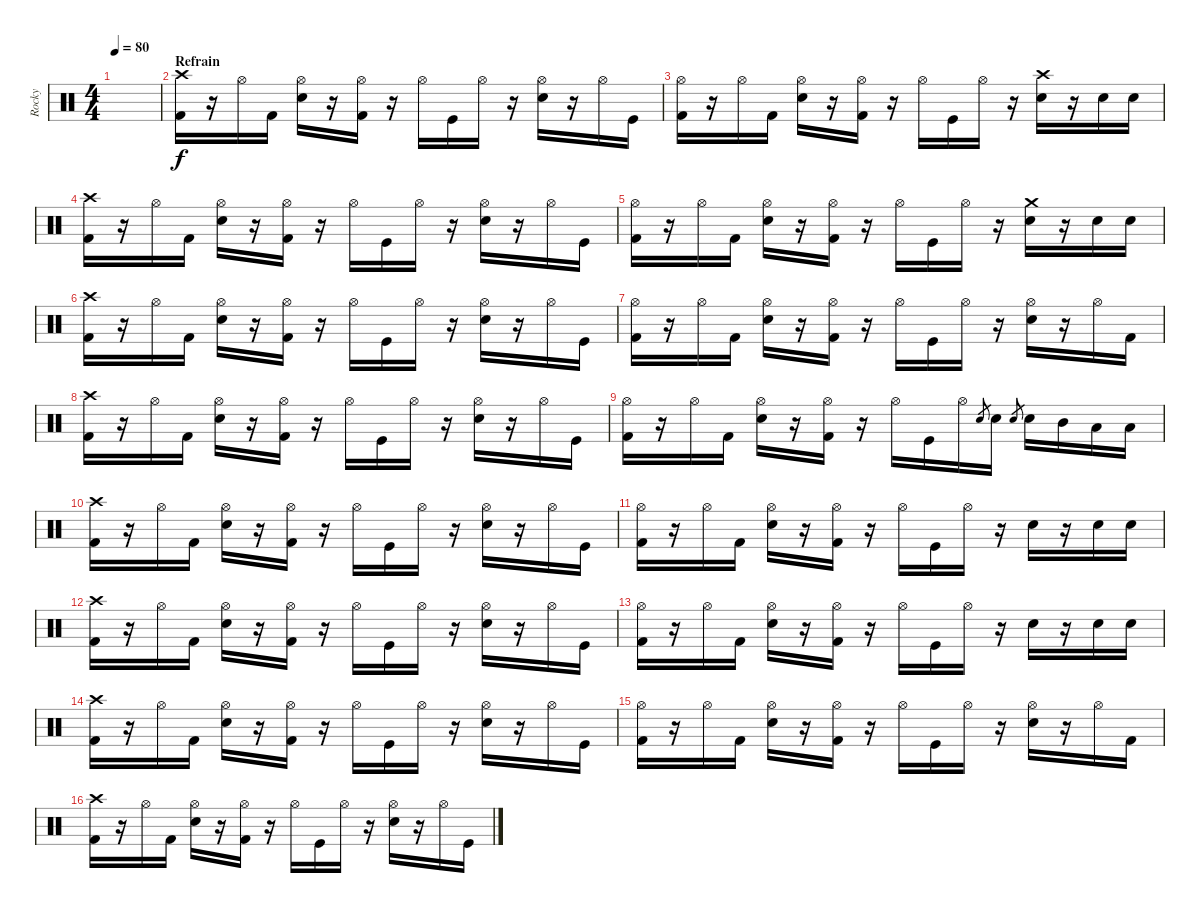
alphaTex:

\track ("Rocky" "Rocky") {instrument percussion}
\staff {score}
\articulation defaults
\ts (4 4)
\tempo 80
\clef neutral
\ks c
|
\section ("" "Refrain")
("Crash high (hit)" "Kick (hit) 2").16 r.16 "Hi-Hat (open)".16 "Kick (hit) 2".16 ("Hi-Hat (open)" "Electric Snare (hit)").16 r.16 ("Hi-Hat (open)" "Kick (hit) 2").16 r.16 "Hi-Hat (open)".16 "Kick (hit)".16 "Hi-Hat (open)".16 r.16 ("Hi-Hat (open)" "Electric Snare (hit)").16 r.16 "Hi-Hat (open)".16 "Kick (hit)".16 |
("Hi-Hat (open)" "Kick (hit) 2").16 r.16 "Hi-Hat (open)".16 "Kick (hit) 2".16 ("Hi-Hat (open)" "Electric Snare (hit)").16 r.16 ("Hi-Hat (open)" "Kick (hit) 2").16 r.16 "Hi-Hat (open)".16 "Kick (hit)".16 "Hi-Hat (open)".16 r.16 ("Crash high (hit)" "Electric Snare (hit)").16 r.16 "Electric Snare (hit)".16 "Electric Snare (hit)".16 |
("Crash high (hit)" "Kick (hit) 2").16 r.16 "Hi-Hat (open)".16 "Kick (hit) 2".16 ("Hi-Hat (open)" "Electric Snare (hit)").16 r.16 ("Hi-Hat (open)" "Kick (hit) 2").16 r.16 "Hi-Hat (open)".16 "Kick (hit)".16 "Hi-Hat (open)".16 r.16 ("Hi-Hat (open)" "Electric Snare (hit)").16 r.16 "Hi-Hat (open)".16 "Kick (hit)".16 |
("Hi-Hat (open)" "Kick (hit) 2").16 r.16 "Hi-Hat (open)".16 "Kick (hit) 2".16 ("Hi-Hat (open)" "Electric Snare (hit)").16 r.16 ("Hi-Hat (open)" "Kick (hit) 2").16 r.16 "Hi-Hat (open)".16 "Kick (hit)".16 "Hi-Hat (open)".16 r.16 ("Crash medium (hit)" "Electric Snare (hit)").16 r.16 "Electric Snare (hit)".16 "Electric Snare (hit)".16 |
("Crash high (hit)" "Kick (hit) 2").16 r.16 "Hi-Hat (open)".16 "Kick (hit) 2".16 ("Hi-Hat (open)" "Electric Snare (hit)").16 r.16 ("Hi-Hat (open)" "Kick (hit) 2").16 r.16 "Hi-Hat (open)".16 "Kick (hit)".16 "Hi-Hat (open)".16 r.16 ("Hi-Hat (open)" "Electric Snare (hit)").16 r.16 "Hi-Hat (open)".16 "Kick (hit)".16 |
("Hi-Hat (open)" "Kick (hit) 2").16 r.16 "Hi-Hat (open)".16 "Kick (hit) 2".16 ("Hi-Hat (open)" "Electric Snare (hit)").16 r.16 ("Hi-Hat (open)" "Kick (hit) 2").16 r.16 "Hi-Hat (open)".16 "Kick (hit)".16 "Hi-Hat (open)".16 r.16 ("Hi-Hat (open)" "Electric Snare (hit)").16 r.16 "Hi-Hat (open)".16 "Kick (hit) 2".16 |
("Crash high (hit)" "Kick (hit) 2").16 r.16 "Hi-Hat (open)".16 "Kick (hit) 2".16 ("Hi-Hat (open)" "Electric Snare (hit)").16 r.16 ("Hi-Hat (open)" "Kick (hit) 2").16 r.16 "Hi-Hat (open)".16 "Kick (hit)".16 "Hi-Hat (open)".16 r.16 ("Hi-Hat (open)" "Electric Snare (hit)").16 r.16 "Hi-Hat (open)".16 "Kick (hit)".16 |
("Hi-Hat (open)" "Kick (hit) 2").16 r.16 "Hi-Hat (open)".16 "Kick (hit) 2".16 ("Hi-Hat (open)" "Electric Snare (hit)").16 r.16 ("Hi-Hat (open)" "Kick (hit) 2").16 r.16 "Hi-Hat (open)".16 "Kick (hit)".16 "Hi-Hat (open)".16 "Electric Snare (hit)".8{gr} "Electric Snare (hit)".16 "Electric Snare (hit)".8{gr} "Electric Snare (hit)".16 "Mid Tom (hit)".16 "Low Tom (hit)".16 "Low Floor Tom (hit)".16 |
("Crash high (hit)" "Kick (hit) 2").16 r.16 "Hi-Hat (open)".16 "Kick (hit) 2".16 ("Hi-Hat (open)" "Electric Snare (hit)").16 r.16 ("Hi-Hat (open)" "Kick (hit) 2").16 r.16 "Hi-Hat (open)".16 "Kick (hit)".16 "Hi-Hat (open)".16 r.16 ("Hi-Hat (open)" "Electric Snare (hit)").16 r.16 "Hi-Hat (open)".16 "Kick (hit)".16 |
("Hi-Hat (open)" "Kick (hit) 2").16 r.16 "Hi-Hat (open)".16 "Kick (hit) 2".16 ("Hi-Hat (open)" "Electric Snare (hit)").16 r.16 ("Hi-Hat (open)" "Kick (hit) 2").16 r.16 "Hi-Hat (open)".16 "Kick (hit)".16 "Hi-Hat (open)".16 r.16 "Electric Snare (hit)".16 r.16 "Electric Snare (hit)".16 "Electric Snare (hit)".16 |
("Crash high (hit)" "Kick (hit) 2").16 r.16 "Hi-Hat (open)".16 "Kick (hit) 2".16 ("Hi-Hat (open)" "Electric Snare (hit)").16 r.16 ("Hi-Hat (open)" "Kick (hit) 2").16 r.16 "Hi-Hat (open)".16 "Kick (hit)".16 "Hi-Hat (open)".16 r.16 ("Hi-Hat (open)" "Electric Snare (hit)").16 r.16 "Hi-Hat (open)".16 "Kick (hit)".16 |
("Hi-Hat (open)" "Kick (hit) 2").16 r.16 "Hi-Hat (open)".16 "Kick (hit) 2".16 ("Hi-Hat (open)" "Electric Snare (hit)").16 r.16 ("Hi-Hat (open)" "Kick (hit) 2").16 r.16 "Hi-Hat (open)".16 "Kick (hit)".16 "Hi-Hat (open)".16 r.16 "Electric Snare (hit)".16 r.16 "Electric Snare (hit)".16 "Electric Snare (hit)".16 |
("Crash high (hit)" "Kick (hit) 2").16 r.16 "Hi-Hat (open)".16 "Kick (hit) 2".16 ("Hi-Hat (open)" "Electric Snare (hit)").16 r.16 ("Hi-Hat (open)" "Kick (hit) 2").16 r.16 "Hi-Hat (open)".16 "Kick (hit)".16 "Hi-Hat (open)".16 r.16 ("Hi-Hat (open)" "Electric Snare (hit)").16 r.16 "Hi-Hat (open)".16 "Kick (hit)".16 |
("Hi-Hat (open)" "Kick (hit) 2").16 r.16 "Hi-Hat (open)".16 "Kick (hit) 2".16 ("Hi-Hat (open)" "Electric Snare (hit)").16 r.16 ("Hi-Hat (open)" "Kick (hit) 2").16 r.16 "Hi-Hat (open)".16 "Kick (hit)".16 "Hi-Hat (open)".16 r.16 ("Hi-Hat (open)" "Electric Snare (hit)").16 r.16 "Hi-Hat (open)".16 "Kick (hit) 2".16 |
("Crash high (hit)" "Kick (hit) 2").16 r.16 "Hi-Hat (open)".16 "Kick (hit) 2".16 ("Hi-Hat (open)" "Electric Snare (hit)").16 r.16 ("Hi-Hat (open)" "Kick (hit) 2").16 r.16 "Hi-Hat (open)".16 "Kick (hit)".16 "Hi-Hat (open)".16 r.16 ("Hi-Hat (open)" "Electric Snare (hit)").16 r.16 "Hi-Hat (open)".16 "Kick (hit)".16
